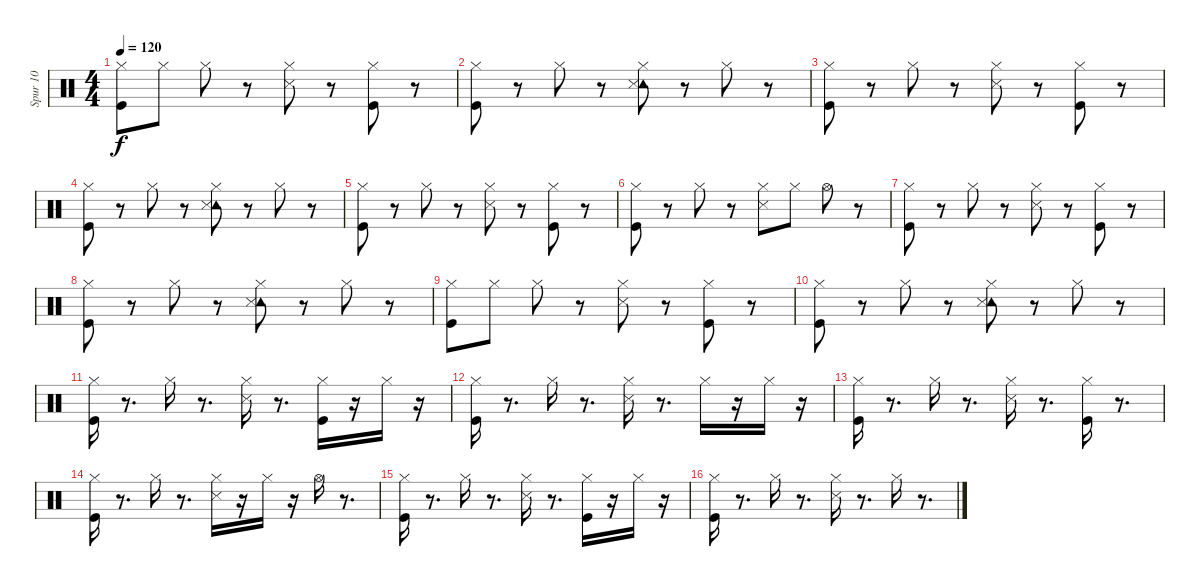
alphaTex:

\track ("Spur 10" "Spur 10") {instrument percussion}
\staff {score}
\articulation defaults
\ts (4 4)
\tempo 120
\clef neutral
\ks c
("Hi-Hat (closed)" "Kick (hit)").8{dy f} "Hi-Hat (closed)".8 "Hi-Hat (closed)".8 r.8 ("Snare (side stick) 3" "Hi-Hat (closed)").8 r.8 ("Kick (hit)" "Hi-Hat (closed)").8 r.8 |
("Kick (hit)" "Hi-Hat (closed)").8 r.8 "Hi-Hat (closed)".8 r.8 ("Tambourine (hit)" "Snare (side stick) 3" "Hi-Hat (closed)").8 r.8 "Hi-Hat (closed)".8 r.8 |
("Kick (hit)" "Hi-Hat (closed)").8 r.8 "Hi-Hat (closed)".8 r.8 ("Snare (side stick) 3" "Hi-Hat (closed)").8 r.8 ("Kick (hit)" "Hi-Hat (closed)").8 r.8 |
("Kick (hit)" "Hi-Hat (closed)").8 r.8 "Hi-Hat (closed)".8 r.8 ("Tambourine (hit)" "Snare (side stick) 3" "Hi-Hat (closed)").8 r.8 "Hi-Hat (closed)".8 r.8 |
("Kick (hit)" "Hi-Hat (closed)").8 r.8 "Hi-Hat (closed)".8 r.8 ("Snare (side stick) 3" "Hi-Hat (closed)").8 r.8 ("Kick (hit)" "Hi-Hat (closed)").8 r.8 |
("Kick (hit)" "Hi-Hat (closed)").8 r.8 "Hi-Hat (closed)".8 r.8 ("Snare (side stick) 3" "Hi-Hat (closed)").8 "Hi-Hat (closed)".8 "Hi-Hat (open)".8 r.8 |
("Kick (hit)" "Hi-Hat (closed)").8 r.8 "Hi-Hat (closed)".8 r.8 ("Snare (side stick) 3" "Hi-Hat (closed)").8 r.8 ("Kick (hit)" "Hi-Hat (closed)").8 r.8 |
("Kick (hit)" "Hi-Hat (closed)").8 r.8 "Hi-Hat (closed)".8 r.8 ("Tambourine (hit)" "Snare (side stick) 3" "Hi-Hat (closed)").8 r.8 "Hi-Hat (closed)".8 r.8 |
("Kick (hit)" "Hi-Hat (closed)").8 "Hi-Hat (closed)".8 "Hi-Hat (closed)".8 r.8 ("Snare (side stick) 3" "Hi-Hat (closed)").8 r.8 ("Kick (hit)" "Hi-Hat (closed)").8 r.8 |
("Kick (hit)" "Hi-Hat (closed)").8 r.8 "Hi-Hat (closed)".8 r.8 ("Tambourine (hit)" "Snare (side stick) 3" "Hi-Hat (closed)").8 r.8 "Hi-Hat (closed)".8 r.8 |
("Hi-Hat (closed)" "Kick (hit)").16 r.8{d} "Hi-Hat (closed)".16 r.8{d} ("Snare (side stick) 3" "Hi-Hat (closed)").16 r.8{d} ("Kick (hit)" "Hi-Hat (closed)").16 r.16 "Hi-Hat (closed)".16 r.16 |
("Kick (hit)" "Hi-Hat (closed)").16 r.8{d} "Hi-Hat (closed)".16 r.8{d} ("Snare (side stick) 3" "Hi-Hat (closed)").16 r.8{d} "Hi-Hat (closed)".16 r.16 "Hi-Hat (closed)".16 r.16 |
("Hi-Hat (closed)" "Kick (hit)").16 r.8{d} "Hi-Hat (closed)".16 r.8{d} ("Snare (side stick) 3" "Hi-Hat (closed)").16 r.8{d} ("Kick (hit)" "Hi-Hat (closed)").16 r.8{d} |
("Kick (hit)" "Hi-Hat (closed)").16 r.8{d} "Hi-Hat (closed)".16 r.8{d} ("Snare (side stick) 3" "Hi-Hat (closed)").16 r.16 "Hi-Hat (closed)".16 r.16 "Hi-Hat (open)".16 r.8{d} |
("Kick (hit)" "Hi-Hat (closed)").16 r.8{d} "Hi-Hat (closed)".16 r.8{d} ("Snare (side stick) 3" "Hi-Hat (closed)").16 r.8{d} ("Kick (hit)" "Hi-Hat (closed)").16 r.16 "Hi-Hat (closed)".16 r.16 |
("Kick (hit)" "Hi-Hat (closed)").16 r.8{d} "Hi-Hat (closed)".16 r.8{d} ("Snare (side stick) 3" "Hi-Hat (closed)").16 r.8{d} "Hi-Hat (closed)".16 r.8{d}
